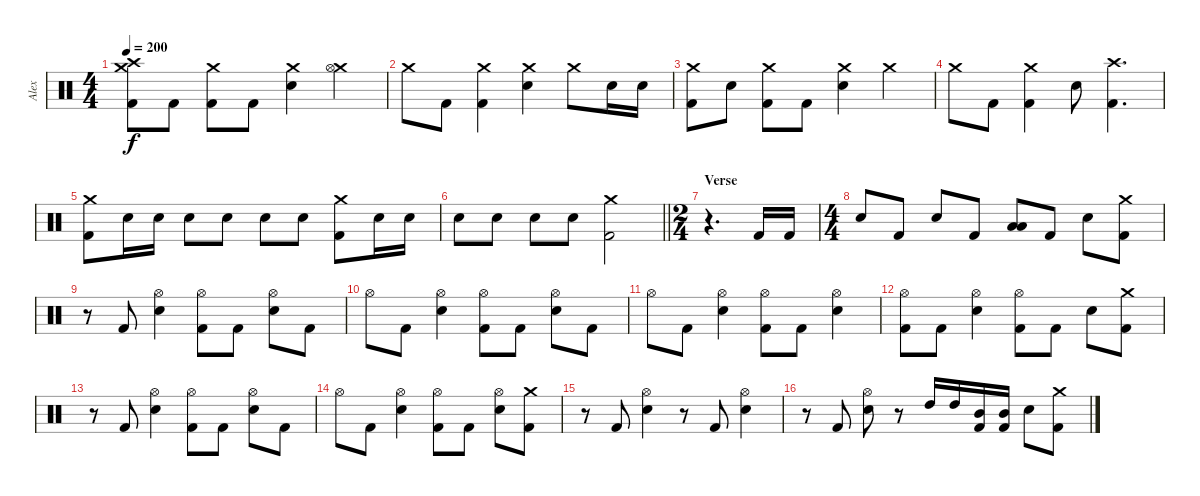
\track ("Alex" "Alex") {instrument percussion}
\staff {score}
\articulation defaults
\ts (4 4)
\tempo 200
\clef neutral
\ks c
("Crash medium (hit)" "Crash high (hit)" "Kick (hit) 2").8{dy f} "Kick (hit) 2".8 ("Crash medium (hit)" "Kick (hit) 2").8 "Kick (hit) 2".8 ("Crash medium (hit)" "Electric Snare (hit)").4 ("Crash medium (hit)" "Hi-Hat (open)").4 |
"Crash medium (hit)".8 "Kick (hit) 2".8 ("Crash medium (hit)" "Kick (hit) 2").4 ("Crash medium (hit)" "Electric Snare (hit)").4 "Crash medium (hit)".8 "Electric Snare (hit)".16 "Electric Snare (hit)".16 |
("Crash medium (hit)" "Kick (hit) 2").8 "Electric Snare (hit)".8 ("Crash medium (hit)" "Kick (hit) 2").8 "Kick (hit) 2".8 ("Crash medium (hit)" "Electric Snare (hit)").4 "Crash medium (hit)".4 |
"Crash medium (hit)".8 "Kick (hit) 2".8 ("Crash medium (hit)" "Kick (hit) 2").4 "Electric Snare (hit)".8 ("Crash high (hit)" "Kick (hit) 2").4{d} |
("Crash medium (hit)" "Kick (hit) 2").8 "Electric Snare (hit)".16 "Electric Snare (hit)".16 "Electric Snare (hit)".8 "Electric Snare (hit)".8 "Electric Snare (hit)".8 "Electric Snare (hit)".8 ("Crash medium (hit)" "Kick (hit) 2").8 "Electric Snare (hit)".16 "Electric Snare (hit)".16 |
\barLineRight lightlight "Electric Snare (hit)".8 "Electric Snare (hit)".8 "Electric Snare (hit)".8 "Electric Snare (hit)".8
("Crash medium (hit)" "Kick (hit) 2").2 |
\ts (2 4)
\section ("" "Verse")
r.4{d} "Kick (hit) 2".16 "Kick (hit) 2".16 |
\ts (4 4)
"Electric Snare (hit)".8 "Kick (hit) 2".8 "Electric Snare (hit)".8 "Kick (hit) 2".8 ("Low Floor Tom (hit)" "Low Tom (hit)").8 "Kick (hit) 2".8 "Electric Snare (hit)".8 ("Crash medium (hit)" "Kick (hit) 2").8 |
r.8 "Kick (hit) 2".8 ("Hi-Hat (open)" "Electric Snare (hit)").4 ("Hi-Hat (open)" "Kick (hit) 2").8 "Kick (hit) 2".8 ("Hi-Hat (open)" "Electric Snare (hit)").8 "Kick (hit) 2".8 |
"Hi-Hat (open)".8 "Kick (hit) 2".8 ("Hi-Hat (open)" "Electric Snare (hit)").4 ("Hi-Hat (open)" "Kick (hit) 2").8 "Kick (hit) 2".8 ("Hi-Hat (open)" "Electric Snare (hit)").8 "Kick (hit) 2".8 |
"Hi-Hat (open)".8 "Kick (hit) 2".8 ("Hi-Hat (open)" "Electric Snare (hit)").4 ("Hi-Hat (open)" "Kick (hit) 2").8 "Kick (hit) 2".8 ("Hi-Hat (open)" "Electric Snare (hit)").4 |
("Hi-Hat (open)" "Kick (hit) 2").8 "Kick (hit) 2".8 ("Hi-Hat (open)" "Electric Snare (hit)").4 ("Hi-Hat (open)" "Kick (hit) 2").8 "Kick (hit) 2".8 "Electric Snare (hit)".8 ("Crash medium (hit)" "Kick (hit) 2").8 |
r.8 "Kick (hit) 2".8 ("Hi-Hat (open)" "Electric Snare (hit)").4 ("Hi-Hat (open)" "Kick (hit) 2").8 "Kick (hit) 2".8 ("Hi-Hat (open)" "Electric Snare (hit)").8 "Kick (hit) 2".8 |
"Hi-Hat (open)".8 "Kick (hit) 2".8 ("Hi-Hat (open)" "Electric Snare (hit)").4 ("Hi-Hat (open)" "Kick (hit) 2").8 "Kick (hit) 2".8 ("Hi-Hat (open)" "Electric Snare (hit)").8 ("Crash medium (hit)" "Kick (hit) 2").8 |
r.8 "Kick (hit) 2".8 ("Hi-Hat (open)" "Electric Snare (hit)").4 r.8 "Kick (hit) 2".8 ("Hi-Hat (open)" "Electric Snare (hit)").4 |
r.8 "Kick (hit) 2".8 ("Hi-Hat (open)" "Electric Snare (hit)").8 r.8 "High Tom (hit)".16 "High Tom (hit)".16 ("Mid Tom (hit)" "Kick (hit) 2").16 ("Mid Tom (hit)" "Kick (hit) 2").16 "Electric Snare (hit)".8 ("Crash medium (hit)" "Kick (hit) 2").8
